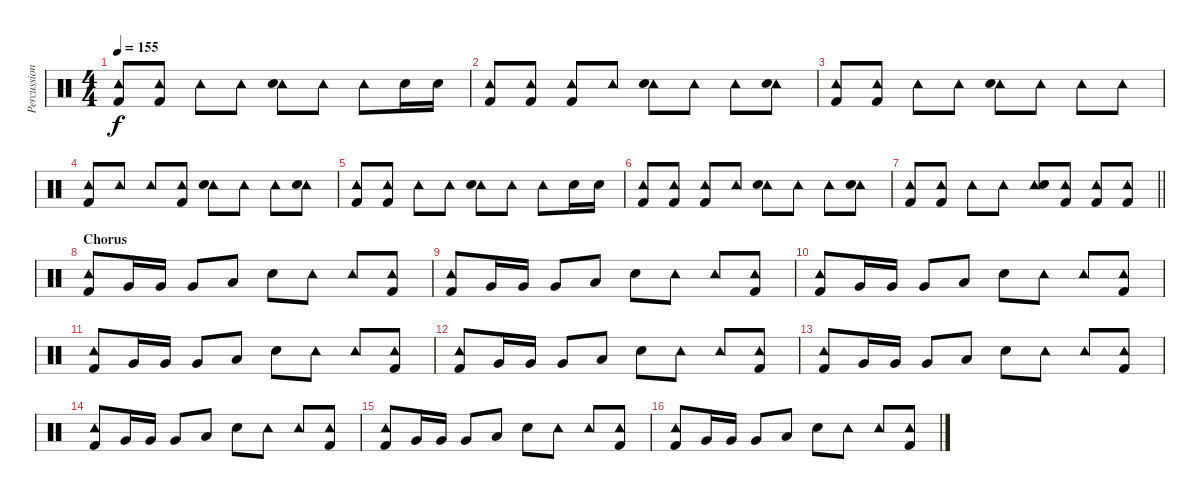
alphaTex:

\track ("Percussion" "Percussion") {instrument percussion}
\staff {score}
\articulation defaults
\ts (4 4)
\tempo 155
\clef neutral
\ks c
("Tambourine (hit)" "Kick (hit) 2").8{dy f} ("Tambourine (hit)" "Kick (hit) 2").8 "Tambourine (hit)".8 "Tambourine (hit)".8 ("Tambourine (hit)" "Electric Snare (hit)").8 "Tambourine (hit)".8 "Tambourine (hit)".8 "Electric Snare (hit)".16 "Electric Snare (hit)".16 |
("Tambourine (hit)" "Kick (hit) 2").8 ("Tambourine (hit)" "Kick (hit) 2").8 ("Tambourine (hit)" "Kick (hit) 2").8 "Tambourine (hit)".8 ("Tambourine (hit)" "Electric Snare (hit)").8 "Tambourine (hit)".8 "Tambourine (hit)".8 ("Tambourine (hit)" "Electric Snare (hit)").8 |
("Tambourine (hit)" "Kick (hit) 2").8 ("Tambourine (hit)" "Kick (hit) 2").8 "Tambourine (hit)".8 "Tambourine (hit)".8 ("Tambourine (hit)" "Electric Snare (hit)").8 "Tambourine (hit)".8 "Tambourine (hit)".8 "Tambourine (hit)".8 |
("Tambourine (hit)" "Kick (hit) 2").8 "Tambourine (hit)".8 "Tambourine (hit)".8 ("Tambourine (hit)" "Kick (hit) 2").8 ("Tambourine (hit)" "Electric Snare (hit)").8 "Tambourine (hit)".8 "Tambourine (hit)".8 ("Tambourine (hit)" "Electric Snare (hit)").8 |
("Tambourine (hit)" "Kick (hit) 2").8 ("Tambourine (hit)" "Kick (hit) 2").8 "Tambourine (hit)".8 "Tambourine (hit)".8 ("Tambourine (hit)" "Electric Snare (hit)").8 "Tambourine (hit)".8 "Tambourine (hit)".8 "Electric Snare (hit)".16 "Electric Snare (hit)".16 |
("Tambourine (hit)" "Kick (hit) 2").8 ("Tambourine (hit)" "Kick (hit) 2").8 ("Tambourine (hit)" "Kick (hit) 2").8 "Tambourine (hit)".8 ("Tambourine (hit)" "Electric Snare (hit)").8 "Tambourine (hit)".8 "Tambourine (hit)".8 ("Tambourine (hit)" "Electric Snare (hit)").8 |
\barLineRight lightlight
("Tambourine (hit)" "Kick (hit) 2").8 ("Tambourine (hit)" "Kick (hit) 2").8 "Tambourine (hit)".8 "Tambourine (hit)".8 ("Tambourine (hit)" "Electric Snare (hit)").8 ("Tambourine (hit)" "Kick (hit) 2").8 ("Tambourine (hit)" "Kick (hit) 2").8 ("Tambourine (hit)" "Kick (hit) 2").8 |
\section ("" "Chorus")
("Tambourine (hit)" "Kick (hit) 2").8 "Very Low Tom (hit)".16 "Very Low Tom (hit)".16 "Very Low Tom (hit)".8 "Low Floor Tom (hit)".8 "Electric Snare (hit)".8 "Tambourine (hit)".8 "Tambourine (hit)".8 ("Tambourine (hit)" "Kick (hit) 2").8 |
("Tambourine (hit)" "Kick (hit) 2").8 "Very Low Tom (hit)".16 "Very Low Tom (hit)".16 "Very Low Tom (hit)".8 "Low Floor Tom (hit)".8 "Electric Snare (hit)".8 "Tambourine (hit)".8 "Tambourine (hit)".8 ("Tambourine (hit)" "Kick (hit) 2").8 |
("Tambourine (hit)" "Kick (hit) 2").8 "Very Low Tom (hit)".16 "Very Low Tom (hit)".16 "Very Low Tom (hit)".8 "Low Floor Tom (hit)".8 "Electric Snare (hit)".8 "Tambourine (hit)".8 "Tambourine (hit)".8 ("Tambourine (hit)" "Kick (hit) 2").8 |
("Tambourine (hit)" "Kick (hit) 2").8 "Very Low Tom (hit)".16 "Very Low Tom (hit)".16 "Very Low Tom (hit)".8 "Low Floor Tom (hit)".8 "Electric Snare (hit)".8 "Tambourine (hit)".8 "Tambourine (hit)".8 ("Tambourine (hit)" "Kick (hit) 2").8 |
("Tambourine (hit)" "Kick (hit) 2").8 "Very Low Tom (hit)".16 "Very Low Tom (hit)".16 "Very Low Tom (hit)".8 "Low Floor Tom (hit)".8 "Electric Snare (hit)".8 "Tambourine (hit)".8 "Tambourine (hit)".8 ("Tambourine (hit)" "Kick (hit) 2").8 |
("Tambourine (hit)" "Kick (hit) 2").8 "Very Low Tom (hit)".16 "Very Low Tom (hit)".16 "Very Low Tom (hit)".8 "Low Floor Tom (hit)".8 "Electric Snare (hit)".8 "Tambourine (hit)".8 "Tambourine (hit)".8 ("Tambourine (hit)" "Kick (hit) 2").8 |
("Tambourine (hit)" "Kick (hit) 2").8 "Very Low Tom (hit)".16 "Very Low Tom (hit)".16 "Very Low Tom (hit)".8 "Low Floor Tom (hit)".8 "Electric Snare (hit)".8 "Tambourine (hit)".8 "Tambourine (hit)".8 ("Tambourine (hit)" "Kick (hit) 2").8 |
("Tambourine (hit)" "Kick (hit) 2").8 "Very Low Tom (hit)".16 "Very Low Tom (hit)".16 "Very Low Tom (hit)".8 "Low Floor Tom (hit)".8 "Electric Snare (hit)".8 "Tambourine (hit)".8 "Tambourine (hit)".8 ("Tambourine (hit)" "Kick (hit) 2").8 |
("Tambourine (hit)" "Kick (hit) 2").8 "Very Low Tom (hit)".16 "Very Low Tom (hit)".16 "Very Low Tom (hit)".8 "Low Floor Tom (hit)".8 "Electric Snare (hit)".8 "Tambourine (hit)".8 "Tambourine (hit)".8 ("Tambourine (hit)" "Kick (hit) 2").8
